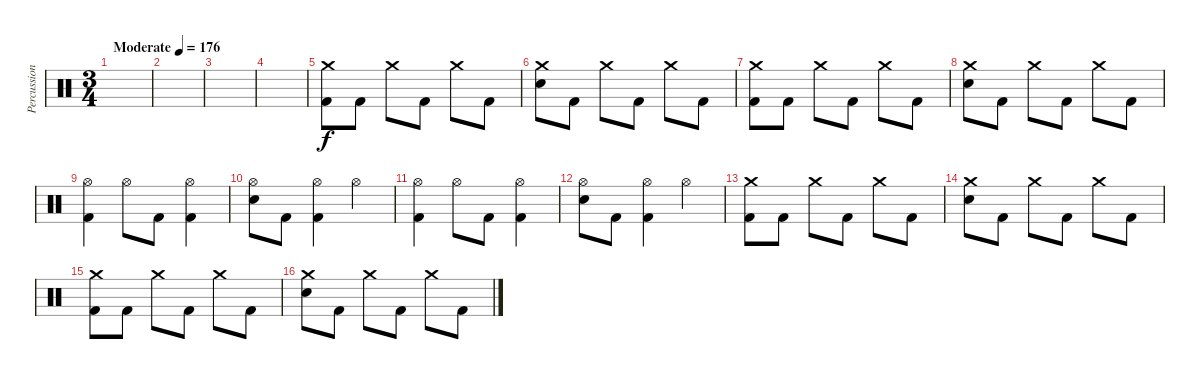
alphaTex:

\track ("Percussion" "Percussion") {instrument percussion}
\staff {score}
\articulation defaults
\ts (3 4)
\tempo (176 "Moderate")
\clef neutral
\ks c
|
|
|
|
("Crash medium (hit)" "Kick (hit) 2").8 "Kick (hit) 2".8 "Crash medium (hit)".8 "Kick (hit) 2".8 "Crash medium (hit)".8 "Kick (hit) 2".8 |
("Crash medium (hit)" "Electric Snare (hit)").8 "Kick (hit) 2".8 "Crash medium (hit)".8 "Kick (hit) 2".8 "Crash medium (hit)".8 "Kick (hit) 2".8 |
("Crash medium (hit)" "Kick (hit) 2").8 "Kick (hit) 2".8 "Crash medium (hit)".8 "Kick (hit) 2".8 "Crash medium (hit)".8 "Kick (hit) 2".8 |
("Crash medium (hit)" "Electric Snare (hit)").8 "Kick (hit) 2".8 "Crash medium (hit)".8 "Kick (hit) 2".8 "Crash medium (hit)".8 "Kick (hit) 2".8 |
("Hi-Hat (open)" "Kick (hit) 2").4 "Hi-Hat (open)".8 "Kick (hit) 2".8 ("Hi-Hat (open)" "Kick (hit) 2").4 |
("Hi-Hat (open)" "Electric Snare (hit)").8 "Kick (hit) 2".8 ("Hi-Hat (open)" "Kick (hit) 2").4 "Hi-Hat (open)".4 |
("Hi-Hat (open)" "Kick (hit) 2").4 "Hi-Hat (open)".8 "Kick (hit) 2".8 ("Hi-Hat (open)" "Kick (hit) 2").4 |
("Hi-Hat (open)" "Electric Snare (hit)").8 "Kick (hit) 2".8 ("Hi-Hat (open)" "Kick (hit) 2").4 "Hi-Hat (open)".4 |
("Crash medium (hit)" "Kick (hit) 2").8 "Kick (hit) 2".8 "Crash medium (hit)".8 "Kick (hit) 2".8 "Crash medium (hit)".8 "Kick (hit) 2".8 |
("Crash medium (hit)" "Electric Snare (hit)").8 "Kick (hit) 2".8 "Crash medium (hit)".8 "Kick (hit) 2".8 "Crash medium (hit)".8 "Kick (hit) 2".8 |
("Crash medium (hit)" "Kick (hit) 2").8 "Kick (hit) 2".8 "Crash medium (hit)".8 "Kick (hit) 2".8 "Crash medium (hit)".8 "Kick (hit) 2".8 |
("Crash medium (hit)" "Electric Snare (hit)").8 "Kick (hit) 2".8 "Crash medium (hit)".8 "Kick (hit) 2".8 "Crash medium (hit)".8 "Kick (hit) 2".8
